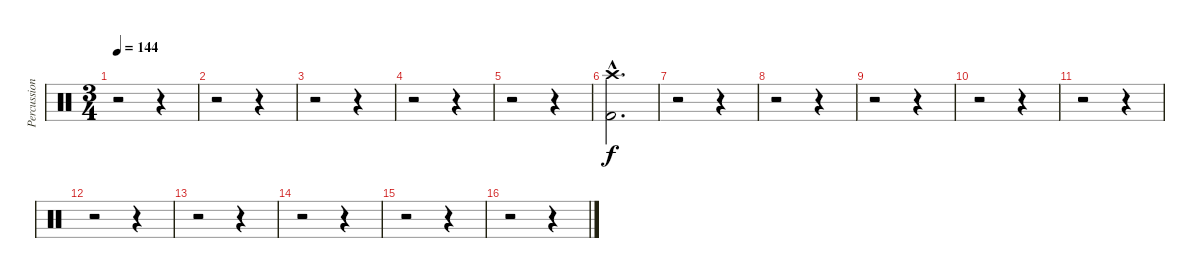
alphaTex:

\track ("Percussion" "Percussion") {instrument percussion}
\staff {score}
\articulation defaults
\ts (3 4)
\tempo 144
\clef neutral
\ks c
r.2{dy f} r.4 |
r.2 r.4 |
r.2 r.4 |
r.2 r.4 |
r.2 r.4 |
\section ("" "")
("Crash high (hit)"{hac} "Kick (hit) 2"{hac}).2{d} |
r.2 r.4 |
r.2 r.4 |
r.2 r.4 |
r.2 r.4 |
r.2 r.4 |
r.2 r.4 |
r.2 r.4 |
r.2 r.4 |
r.2 r.4 |
r.2 r.4
